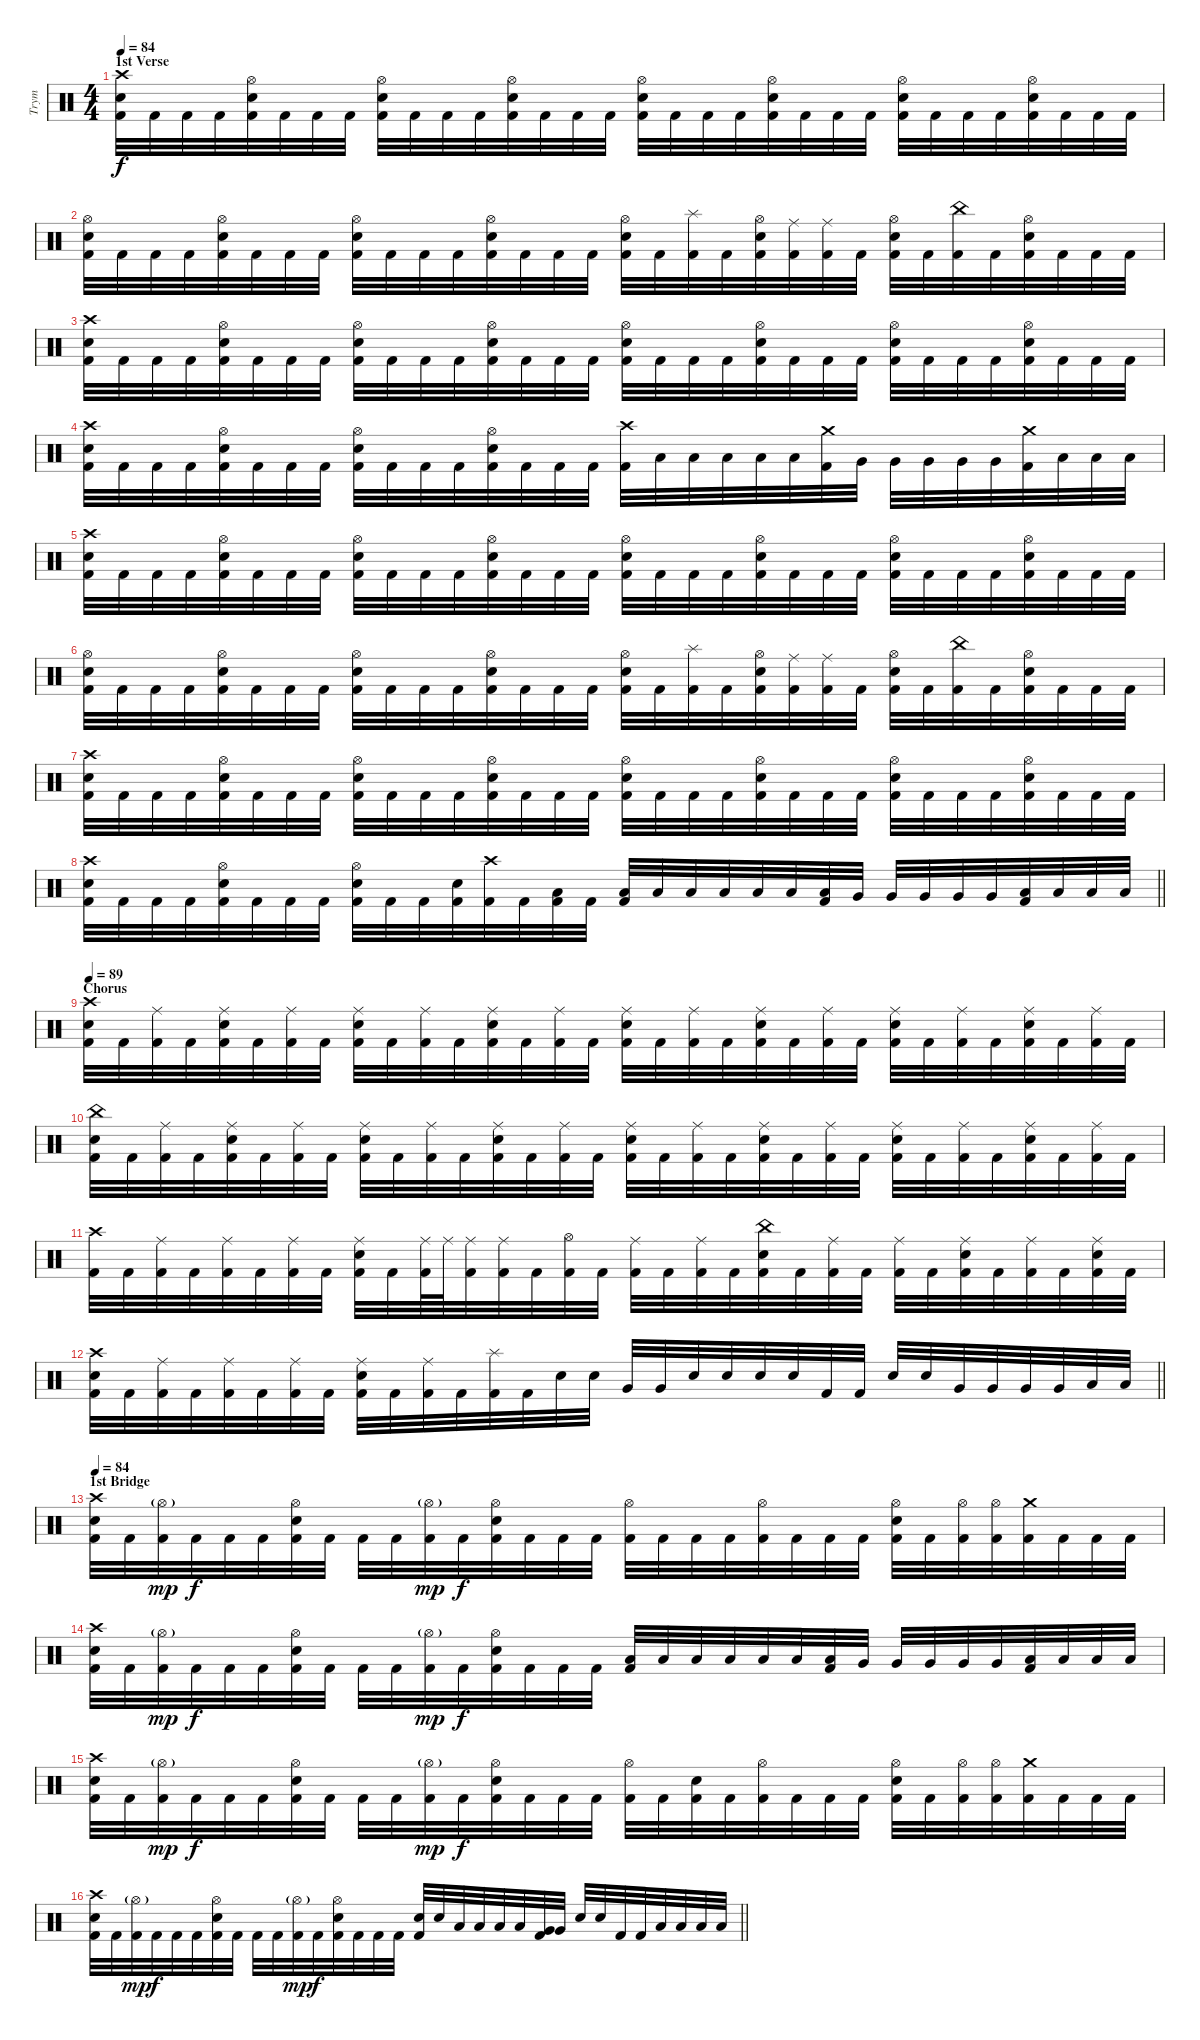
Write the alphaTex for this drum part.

\track ("Trym" "Trym") {instrument percussion}
\staff {score}
\articulation defaults
\ts (4 4)
\section ("" "1st Verse")
\tempo 84
\clef neutral
\ks c
("Crash high (hit)" "Snare (hit) 2" "Kick (hit) 2").32{dy f} "Kick (hit) 2".32 "Kick (hit) 2".32 "Kick (hit) 2".32 ("Hi-Hat (open)" "Snare (hit) 2" "Kick (hit) 2").32 "Kick (hit) 2".32 "Kick (hit) 2".32 "Kick (hit) 2".32 ("Hi-Hat (open)" "Snare (hit) 2" "Kick (hit) 2").32 "Kick (hit) 2".32 "Kick (hit) 2".32 "Kick (hit) 2".32 ("Hi-Hat (open)" "Snare (hit) 2" "Kick (hit) 2").32 "Kick (hit) 2".32 "Kick (hit) 2".32 "Kick (hit) 2".32 ("Hi-Hat (open)" "Snare (hit) 2" "Kick (hit) 2").32 "Kick (hit) 2".32 "Kick (hit) 2".32 "Kick (hit) 2".32 ("Hi-Hat (open)" "Snare (hit) 2" "Kick (hit) 2").32 "Kick (hit) 2".32 "Kick (hit) 2".32 "Kick (hit) 2".32 ("Hi-Hat (open)" "Snare (hit) 2" "Kick (hit) 2").32 "Kick (hit) 2".32 "Kick (hit) 2".32 "Kick (hit) 2".32 ("Hi-Hat (open)" "Snare (hit) 2" "Kick (hit) 2").32 "Kick (hit) 2".32 "Kick (hit) 2".32 "Kick (hit) 2".32 |
("Hi-Hat (open)" "Snare (hit) 2" "Kick (hit) 2").32 "Kick (hit) 2".32 "Kick (hit) 2".32 "Kick (hit) 2".32 ("Hi-Hat (open)" "Snare (hit) 2" "Kick (hit) 2").32 "Kick (hit) 2".32 "Kick (hit) 2".32 "Kick (hit) 2".32 ("Hi-Hat (open)" "Snare (hit) 2" "Kick (hit) 2").32 "Kick (hit) 2".32 "Kick (hit) 2".32 "Kick (hit) 2".32 ("Hi-Hat (open)" "Snare (hit) 2" "Kick (hit) 2").32 "Kick (hit) 2".32 "Kick (hit) 2".32 "Kick (hit) 2".32 ("Hi-Hat (open)" "Snare (hit) 2" "Kick (hit) 2").32 "Kick (hit) 2".32 ("Splash (hit)" "Kick (hit) 2").32 "Kick (hit) 2".32 ("Hi-Hat (open)" "Snare (hit) 2" "Kick (hit) 2").32 ("Ride (middle)" "Kick (hit) 2").32 ("Ride (middle)" "Kick (hit) 2").32 "Kick (hit) 2".32 ("Hi-Hat (open)" "Snare (hit) 2" "Kick (hit) 2").32 "Kick (hit) 2".32 ("China (hit)" "Kick (hit) 2").32 "Kick (hit) 2".32 ("Hi-Hat (open)" "Snare (hit) 2" "Kick (hit) 2").32 "Kick (hit) 2".32 "Kick (hit) 2".32 "Kick (hit) 2".32 |
("Crash high (hit)" "Snare (hit) 2" "Kick (hit) 2").32 "Kick (hit) 2".32 "Kick (hit) 2".32 "Kick (hit) 2".32 ("Hi-Hat (open)" "Snare (hit) 2" "Kick (hit) 2").32 "Kick (hit) 2".32 "Kick (hit) 2".32 "Kick (hit) 2".32 ("Hi-Hat (open)" "Snare (hit) 2" "Kick (hit) 2").32 "Kick (hit) 2".32 "Kick (hit) 2".32 "Kick (hit) 2".32 ("Hi-Hat (open)" "Snare (hit) 2" "Kick (hit) 2").32 "Kick (hit) 2".32 "Kick (hit) 2".32 "Kick (hit) 2".32 ("Hi-Hat (open)" "Snare (hit) 2" "Kick (hit) 2").32 "Kick (hit) 2".32 "Kick (hit) 2".32 "Kick (hit) 2".32 ("Hi-Hat (open)" "Snare (hit) 2" "Kick (hit) 2").32 "Kick (hit) 2".32 "Kick (hit) 2".32 "Kick (hit) 2".32 ("Hi-Hat (open)" "Snare (hit) 2" "Kick (hit) 2").32 "Kick (hit) 2".32 "Kick (hit) 2".32 "Kick (hit) 2".32 ("Hi-Hat (open)" "Snare (hit) 2" "Kick (hit) 2").32 "Kick (hit) 2".32 "Kick (hit) 2".32 "Kick (hit) 2".32 |
("Crash high (hit)" "Snare (hit) 2" "Kick (hit) 2").32 "Kick (hit) 2".32 "Kick (hit) 2".32 "Kick (hit) 2".32 ("Hi-Hat (open)" "Snare (hit) 2" "Kick (hit) 2").32 "Kick (hit) 2".32 "Kick (hit) 2".32 "Kick (hit) 2".32 ("Hi-Hat (open)" "Snare (hit) 2" "Kick (hit) 2").32 "Kick (hit) 2".32 "Kick (hit) 2".32 "Kick (hit) 2".32 ("Hi-Hat (open)" "Snare (hit) 2" "Kick (hit) 2").32 "Kick (hit) 2".32 "Kick (hit) 2".32 "Kick (hit) 2".32 ("Crash high (hit)" "Kick (hit) 2").32 "Low Tom (hit)".32 "Low Tom (hit)".32 "Low Tom (hit)".32 "Low Tom (hit)".32 "Low Tom (hit)".32 ("Crash medium (hit)" "Kick (hit) 2").32 "Very Low Tom (hit)".32 "Very Low Tom (hit)".32 "Very Low Tom (hit)".32 "Very Low Tom (hit)".32 "Very Low Tom (hit)".32 ("Crash medium (hit)" "Kick (hit) 2").32 "Low Floor Tom (hit)".32 "Low Floor Tom (hit)".32 "Low Floor Tom (hit)".32 |
("Crash high (hit)" "Snare (hit) 2" "Kick (hit) 2").32 "Kick (hit) 2".32 "Kick (hit) 2".32 "Kick (hit) 2".32 ("Hi-Hat (open)" "Snare (hit) 2" "Kick (hit) 2").32 "Kick (hit) 2".32 "Kick (hit) 2".32 "Kick (hit) 2".32 ("Hi-Hat (open)" "Snare (hit) 2" "Kick (hit) 2").32 "Kick (hit) 2".32 "Kick (hit) 2".32 "Kick (hit) 2".32 ("Hi-Hat (open)" "Snare (hit) 2" "Kick (hit) 2").32 "Kick (hit) 2".32 "Kick (hit) 2".32 "Kick (hit) 2".32 ("Hi-Hat (open)" "Snare (hit) 2" "Kick (hit) 2").32 "Kick (hit) 2".32 "Kick (hit) 2".32 "Kick (hit) 2".32 ("Hi-Hat (open)" "Snare (hit) 2" "Kick (hit) 2").32 "Kick (hit) 2".32 "Kick (hit) 2".32 "Kick (hit) 2".32 ("Hi-Hat (open)" "Snare (hit) 2" "Kick (hit) 2").32 "Kick (hit) 2".32 "Kick (hit) 2".32 "Kick (hit) 2".32 ("Hi-Hat (open)" "Snare (hit) 2" "Kick (hit) 2").32 "Kick (hit) 2".32 "Kick (hit) 2".32 "Kick (hit) 2".32 |
("Hi-Hat (open)" "Snare (hit) 2" "Kick (hit) 2").32 "Kick (hit) 2".32 "Kick (hit) 2".32 "Kick (hit) 2".32 ("Hi-Hat (open)" "Snare (hit) 2" "Kick (hit) 2").32 "Kick (hit) 2".32 "Kick (hit) 2".32 "Kick (hit) 2".32 ("Hi-Hat (open)" "Snare (hit) 2" "Kick (hit) 2").32 "Kick (hit) 2".32 "Kick (hit) 2".32 "Kick (hit) 2".32 ("Hi-Hat (open)" "Snare (hit) 2" "Kick (hit) 2").32 "Kick (hit) 2".32 "Kick (hit) 2".32 "Kick (hit) 2".32 ("Hi-Hat (open)" "Snare (hit) 2" "Kick (hit) 2").32 "Kick (hit) 2".32 ("Splash (hit)" "Kick (hit) 2").32 "Kick (hit) 2".32 ("Hi-Hat (open)" "Snare (hit) 2" "Kick (hit) 2").32 ("Ride (middle)" "Kick (hit) 2").32 ("Ride (middle)" "Kick (hit) 2").32 "Kick (hit) 2".32 ("Hi-Hat (open)" "Snare (hit) 2" "Kick (hit) 2").32 "Kick (hit) 2".32 ("China (hit)" "Kick (hit) 2").32 "Kick (hit) 2".32 ("Hi-Hat (open)" "Snare (hit) 2" "Kick (hit) 2").32 "Kick (hit) 2".32 "Kick (hit) 2".32 "Kick (hit) 2".32 |
("Crash high (hit)" "Snare (hit) 2" "Kick (hit) 2").32 "Kick (hit) 2".32 "Kick (hit) 2".32 "Kick (hit) 2".32 ("Hi-Hat (open)" "Snare (hit) 2" "Kick (hit) 2").32 "Kick (hit) 2".32 "Kick (hit) 2".32 "Kick (hit) 2".32 ("Hi-Hat (open)" "Snare (hit) 2" "Kick (hit) 2").32 "Kick (hit) 2".32 "Kick (hit) 2".32 "Kick (hit) 2".32 ("Hi-Hat (open)" "Snare (hit) 2" "Kick (hit) 2").32 "Kick (hit) 2".32 "Kick (hit) 2".32 "Kick (hit) 2".32 ("Hi-Hat (open)" "Snare (hit) 2" "Kick (hit) 2").32 "Kick (hit) 2".32 "Kick (hit) 2".32 "Kick (hit) 2".32 ("Hi-Hat (open)" "Snare (hit) 2" "Kick (hit) 2").32 "Kick (hit) 2".32 "Kick (hit) 2".32 "Kick (hit) 2".32 ("Hi-Hat (open)" "Snare (hit) 2" "Kick (hit) 2").32 "Kick (hit) 2".32 "Kick (hit) 2".32 "Kick (hit) 2".32 ("Hi-Hat (open)" "Snare (hit) 2" "Kick (hit) 2").32 "Kick (hit) 2".32 "Kick (hit) 2".32 "Kick (hit) 2".32 |
\barLineRight lightlight
("Crash high (hit)" "Snare (hit) 2" "Kick (hit) 2").32 "Kick (hit) 2".32 "Kick (hit) 2".32 "Kick (hit) 2".32 ("Hi-Hat (open)" "Snare (hit) 2" "Kick (hit) 2").32 "Kick (hit) 2".32 "Kick (hit) 2".32 "Kick (hit) 2".32 ("Hi-Hat (open)" "Snare (hit) 2" "Kick (hit) 2").32 "Kick (hit) 2".32 "Kick (hit) 2".32 ("Snare (hit) 2" "Kick (hit) 2").32 ("Crash high (hit)" "Kick (hit) 2").32 "Kick (hit) 2".32 ("Low Floor Tom (hit)" "Kick (hit) 2").32 "Kick (hit) 2".32 ("Low Tom (hit)" "Kick (hit) 2").32 "Low Tom (hit)".32 "Low Tom (hit)".32 "Low Tom (hit)".32 "Low Tom (hit)".32 "Low Tom (hit)".32 ("Low Tom (hit)" "Kick (hit) 2").32 "Very Low Tom (hit)".32 "Very Low Tom (hit)".32 "Very Low Tom (hit)".32 "Very Low Tom (hit)".32 "Very Low Tom (hit)".32 ("Low Floor Tom (hit)" "Kick (hit) 2").32 "Low Floor Tom (hit)".32 "Low Floor Tom (hit)".32 "Low Floor Tom (hit)".32 |
\section ("" "Chorus")
\tempo 89
("Crash high (hit)" "Snare (hit) 2" "Kick (hit) 2").32 "Kick (hit) 2".32 ("Ride (middle)" "Kick (hit) 2").32 "Kick (hit) 2".32 ("Ride (middle)" "Snare (hit) 2" "Kick (hit) 2").32 "Kick (hit) 2".32 ("Ride (middle)" "Kick (hit) 2").32 "Kick (hit) 2".32 ("Ride (middle)" "Snare (hit) 2" "Kick (hit) 2").32 "Kick (hit) 2".32 ("Ride (middle)" "Kick (hit) 2").32 "Kick (hit) 2".32 ("Ride (middle)" "Snare (hit) 2" "Kick (hit) 2").32 "Kick (hit) 2".32 ("Ride (middle)" "Kick (hit) 2").32 "Kick (hit) 2".32 ("Ride (middle)" "Snare (hit) 2" "Kick (hit) 2").32 "Kick (hit) 2".32 ("Ride (middle)" "Kick (hit) 2").32 "Kick (hit) 2".32 ("Ride (middle)" "Snare (hit) 2" "Kick (hit) 2").32 "Kick (hit) 2".32 ("Ride (middle)" "Kick (hit) 2").32 "Kick (hit) 2".32 ("Ride (middle)" "Snare (hit) 2" "Kick (hit) 2").32 "Kick (hit) 2".32 ("Ride (middle)" "Kick (hit) 2").32 "Kick (hit) 2".32 ("Ride (middle)" "Snare (hit) 2" "Kick (hit) 2").32 "Kick (hit) 2".32 ("Ride (middle)" "Kick (hit) 2").32 "Kick (hit) 2".32 |
("China (hit)" "Snare (hit) 2" "Kick (hit) 2").32 "Kick (hit) 2".32 ("Ride (middle)" "Kick (hit) 2").32 "Kick (hit) 2".32 ("Ride (middle)" "Snare (hit) 2" "Kick (hit) 2").32 "Kick (hit) 2".32 ("Ride (middle)" "Kick (hit) 2").32 "Kick (hit) 2".32 ("Ride (middle)" "Snare (hit) 2" "Kick (hit) 2").32 "Kick (hit) 2".32 ("Ride (middle)" "Kick (hit) 2").32 "Kick (hit) 2".32 ("Ride (middle)" "Snare (hit) 2" "Kick (hit) 2").32 "Kick (hit) 2".32 ("Ride (middle)" "Kick (hit) 2").32 "Kick (hit) 2".32 ("Ride (middle)" "Snare (hit) 2" "Kick (hit) 2").32 "Kick (hit) 2".32 ("Ride (middle)" "Kick (hit) 2").32 "Kick (hit) 2".32 ("Ride (middle)" "Snare (hit) 2" "Kick (hit) 2").32 "Kick (hit) 2".32 ("Ride (middle)" "Kick (hit) 2").32 "Kick (hit) 2".32 ("Ride (middle)" "Snare (hit) 2" "Kick (hit) 2").32 "Kick (hit) 2".32 ("Ride (middle)" "Kick (hit) 2").32 "Kick (hit) 2".32 ("Ride (middle)" "Snare (hit) 2" "Kick (hit) 2").32 "Kick (hit) 2".32 ("Ride (middle)" "Kick (hit) 2").32 "Kick (hit) 2".32 |
("Crash high (hit)" "Kick (hit) 2").32 "Kick (hit) 2".32 ("Ride (middle)" "Kick (hit) 2").32 "Kick (hit) 2".32 ("Ride (middle)" "Kick (hit) 2").32 "Kick (hit) 2".32 ("Ride (middle)" "Kick (hit) 2").32 "Kick (hit) 2".32 ("Ride (middle)" "Snare (hit) 2" "Kick (hit) 2").32 "Kick (hit) 2".32 ("Ride (middle)" "Kick (hit) 2").64 "Ride (middle)".64 ("Ride (middle)" "Kick (hit) 2").32 ("Ride (middle)" "Kick (hit) 2").32 "Kick (hit) 2".32 ("Hi-Hat (open)" "Kick (hit) 2").32 "Kick (hit) 2".32 ("Ride (middle)" "Kick (hit) 2").32 "Kick (hit) 2".32 ("Ride (middle)" "Kick (hit) 2").32 "Kick (hit) 2".32 ("China (hit)" "Snare (hit) 2" "Kick (hit) 2").32 "Kick (hit) 2".32 ("Ride (middle)" "Kick (hit) 2").32 "Kick (hit) 2".32 ("Ride (middle)" "Kick (hit) 2").32 "Kick (hit) 2".32 ("Ride (middle)" "Snare (hit) 2" "Kick (hit) 2").32 "Kick (hit) 2".32 ("Ride (middle)" "Kick (hit) 2").32 "Kick (hit) 2".32 ("Ride (middle)" "Snare (hit) 2" "Kick (hit) 2").32 "Kick (hit) 2".32 |
\barLineRight lightlight
("Crash high (hit)" "Snare (hit) 2" "Kick (hit) 2").32 "Kick (hit) 2".32 ("Ride (middle)" "Kick (hit) 2").32 "Kick (hit) 2".32 ("Ride (middle)" "Kick (hit) 2").32 "Kick (hit) 2".32 ("Ride (middle)" "Kick (hit) 2").32 "Kick (hit) 2".32 ("Ride (middle)" "Snare (hit) 2" "Kick (hit) 2").32 "Kick (hit) 2".32 ("Ride (middle)" "Kick (hit) 2").32 "Kick (hit) 2".32 ("Splash (hit)" "Kick (hit) 2").32 "Kick (hit) 2".32 "Snare (hit) 2".32 "Snare (hit) 2".32 "Very Low Tom (hit)".32 "Very Low Tom (hit)".32 "Snare (hit) 2".32 "Snare (hit) 2".32 "Snare (hit) 2".32 "Snare (hit) 2".32 "Kick (hit) 2".32 "Kick (hit) 2".32 "Snare (hit) 2".32 "Snare (hit) 2".32 "Very Low Tom (hit)".32 "Very Low Tom (hit)".32 "Very Low Tom (hit)".32 "Very Low Tom (hit)".32 "Low Floor Tom (hit)".32 "Low Floor Tom (hit)".32 |
\section ("" "1st Bridge")
\tempo 84
("Crash high (hit)" "Snare (hit) 2" "Kick (hit) 2").32 "Kick (hit) 2".32 ("Hi-Hat (open)"{g} "Kick (hit) 2").32{dy mp} "Kick (hit) 2".32{dy f} "Kick (hit) 2".32 "Kick (hit) 2".32 ("Hi-Hat (open)" "Snare (hit) 2" "Kick (hit) 2").32 "Kick (hit) 2".32 "Kick (hit) 2".32 "Kick (hit) 2".32 ("Hi-Hat (open)"{g} "Kick (hit) 2").32{dy mp} "Kick (hit) 2".32{dy f} ("Hi-Hat (open)" "Snare (hit) 2" "Kick (hit) 2").32 "Kick (hit) 2".32 "Kick (hit) 2".32 "Kick (hit) 2".32 ("Hi-Hat (open)" "Kick (hit) 2").32 "Kick (hit) 2".32 "Kick (hit) 2".32 "Kick (hit) 2".32 ("Hi-Hat (open)" "Kick (hit) 2").32 "Kick (hit) 2".32 "Kick (hit) 2".32 "Kick (hit) 2".32 ("Hi-Hat (open)" "Snare (hit) 2" "Kick (hit) 2").32 "Kick (hit) 2".32 ("Hi-Hat (open)" "Kick (hit) 2").32 ("Hi-Hat (open)" "Kick (hit) 2").32 ("Crash medium (hit)" "Kick (hit) 2").32 "Kick (hit) 2".32 "Kick (hit) 2".32 "Kick (hit) 2".32 |
("Crash high (hit)" "Snare (hit) 2" "Kick (hit) 2").32 "Kick (hit) 2".32 ("Hi-Hat (open)"{g} "Kick (hit) 2").32{dy mp} "Kick (hit) 2".32{dy f} "Kick (hit) 2".32 "Kick (hit) 2".32 ("Hi-Hat (open)" "Snare (hit) 2" "Kick (hit) 2").32 "Kick (hit) 2".32 "Kick (hit) 2".32 "Kick (hit) 2".32 ("Hi-Hat (open)"{g} "Kick (hit) 2").32{dy mp} "Kick (hit) 2".32{dy f} ("Hi-Hat (open)" "Snare (hit) 2" "Kick (hit) 2").32 "Kick (hit) 2".32 "Kick (hit) 2".32 "Kick (hit) 2".32 ("Low Tom (hit)" "Kick (hit) 2").32 "Low Tom (hit)".32 "Low Tom (hit)".32 "Low Tom (hit)".32 "Low Tom (hit)".32 "Low Tom (hit)".32 ("Low Tom (hit)" "Kick (hit) 2").32 "Very Low Tom (hit)".32 "Very Low Tom (hit)".32 "Very Low Tom (hit)".32 "Very Low Tom (hit)".32 "Very Low Tom (hit)".32 ("Low Floor Tom (hit)" "Kick (hit) 2").32 "Low Floor Tom (hit)".32 "Low Floor Tom (hit)".32 "Low Floor Tom (hit)".32 |
("Crash high (hit)" "Snare (hit) 2" "Kick (hit) 2").32 "Kick (hit) 2".32 ("Hi-Hat (open)"{g} "Kick (hit) 2").32{dy mp} "Kick (hit) 2".32{dy f} "Kick (hit) 2".32 "Kick (hit) 2".32 ("Hi-Hat (open)" "Snare (hit) 2" "Kick (hit) 2").32 "Kick (hit) 2".32 "Kick (hit) 2".32 "Kick (hit) 2".32 ("Hi-Hat (open)"{g} "Kick (hit) 2").32{dy mp} "Kick (hit) 2".32{dy f} ("Hi-Hat (open)" "Snare (hit) 2" "Kick (hit) 2").32 "Kick (hit) 2".32 "Kick (hit) 2".32 "Kick (hit) 2".32 ("Hi-Hat (open)" "Kick (hit) 2").32 "Kick (hit) 2".32 ("Snare (hit) 2" "Kick (hit) 2").32 "Kick (hit) 2".32 ("Hi-Hat (open)" "Kick (hit) 2").32 "Kick (hit) 2".32 "Kick (hit) 2".32 "Kick (hit) 2".32 ("Hi-Hat (open)" "Snare (hit) 2" "Kick (hit) 2").32 "Kick (hit) 2".32 ("Hi-Hat (open)" "Kick (hit) 2").32 ("Hi-Hat (open)" "Kick (hit) 2").32 ("Crash medium (hit)" "Kick (hit) 2").32 "Kick (hit) 2".32 "Kick (hit) 2".32 "Kick (hit) 2".32 |
\barLineRight lightlight
("Crash high (hit)" "Snare (hit) 2" "Kick (hit) 2").32 "Kick (hit) 2".32 ("Hi-Hat (open)"{g} "Kick (hit) 2").32{dy mp} "Kick (hit) 2".32{dy f} "Kick (hit) 2".32 "Kick (hit) 2".32 ("Hi-Hat (open)" "Snare (hit) 2" "Kick (hit) 2").32 "Kick (hit) 2".32 "Kick (hit) 2".32 "Kick (hit) 2".32 ("Hi-Hat (open)"{g} "Kick (hit) 2").32{dy mp} "Kick (hit) 2".32{dy f} ("Hi-Hat (open)" "Snare (hit) 2" "Kick (hit) 2").32 "Kick (hit) 2".32 "Kick (hit) 2".32 "Kick (hit) 2".32 ("Snare (hit) 2" "Kick (hit) 2").32 "Snare (hit) 2".32 "Low Tom (hit)".32 "Low Tom (hit)".32 "Low Tom (hit)".32 "Low Tom (hit)".32 ("Very Low Tom (hit)" "Kick (hit) 2").32 "Very Low Tom (hit)".32 "Snare (hit) 2".32 "Snare (hit) 2".32 "Kick (hit) 2".32 "Kick (hit) 2".32 "Low Floor Tom (hit)".32 "Low Floor Tom (hit)".32 "Low Floor Tom (hit)".32 "Low Floor Tom (hit)".32
